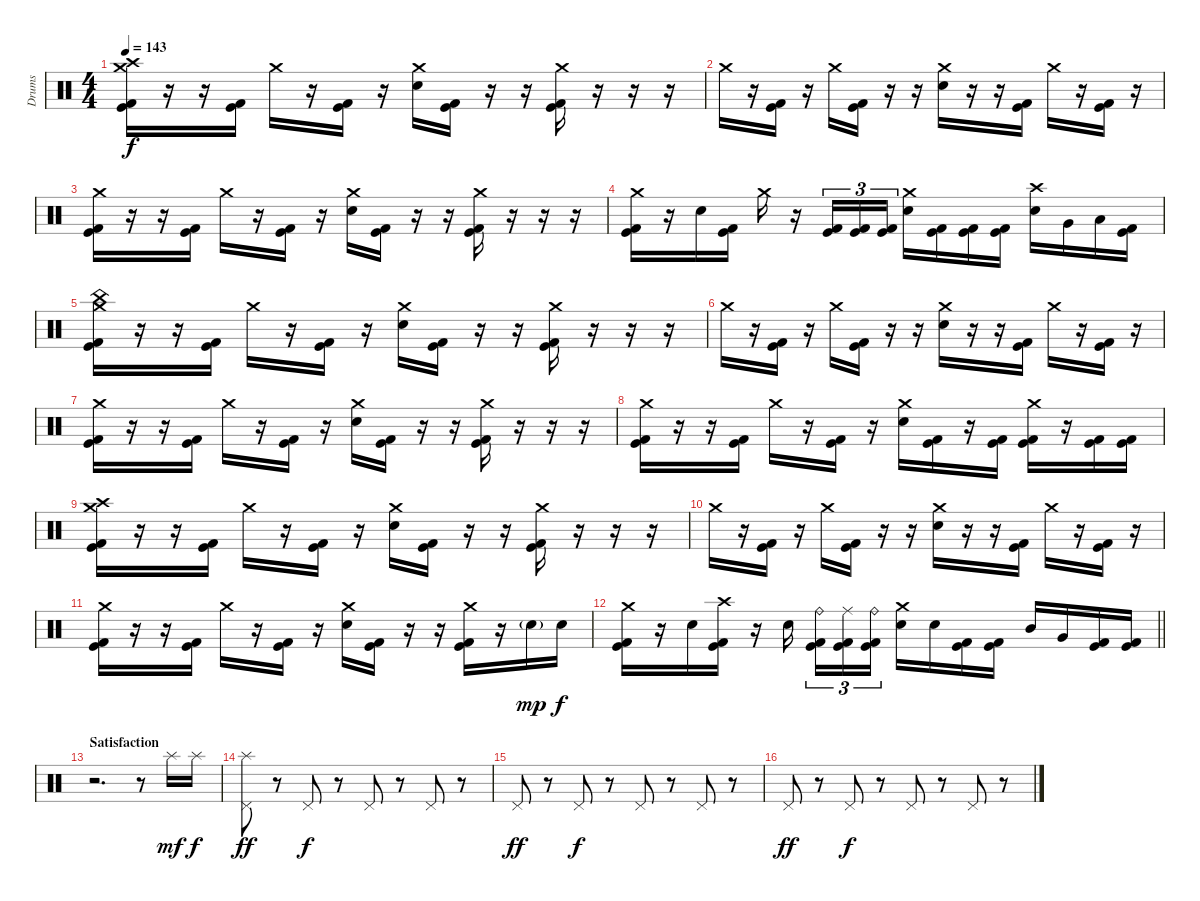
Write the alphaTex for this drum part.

\track ("Drums" "Drums") {instrument percussion}
\staff {score}
\articulation defaults
\ts (4 4)
\tempo 143
\clef neutral
\ks c
("Crash medium (hit)" "Crash high (hit)" "Kick (hit)" "Kick (hit) 2").16{dy f} r.16 r.16 ("Kick (hit)" "Kick (hit) 2").16 "Crash medium (hit)".16 r.16 ("Kick (hit)" "Kick (hit) 2").16 r.16 ("Crash medium (hit)" "Electric Snare (hit)").16 ("Kick (hit)" "Kick (hit) 2").16 r.16 r.16 ("Crash medium (hit)" "Kick (hit)" "Kick (hit) 2").16 r.16 r.16 r.16 |
"Crash medium (hit)".16 r.16 ("Kick (hit)" "Kick (hit) 2").16 r.16 "Crash medium (hit)".16 ("Kick (hit)" "Kick (hit) 2").16 r.16 r.16 ("Crash medium (hit)" "Electric Snare (hit)").16 r.16 r.16 ("Kick (hit)" "Kick (hit) 2").16 "Crash medium (hit)".16 r.16 ("Kick (hit)" "Kick (hit) 2").16 r.16 |
("Crash medium (hit)" "Kick (hit)" "Kick (hit) 2").16 r.16 r.16 ("Kick (hit)" "Kick (hit) 2").16 "Crash medium (hit)".16 r.16 ("Kick (hit)" "Kick (hit) 2").16 r.16 ("Crash medium (hit)" "Electric Snare (hit)").16 ("Kick (hit)" "Kick (hit) 2").16 r.16 r.16 ("Crash medium (hit)" "Kick (hit)" "Kick (hit) 2").16 r.16 r.16 r.16 |
("Crash medium (hit)" "Kick (hit)" "Kick (hit) 2").16 r.16 "Electric Snare (hit)".16 ("Kick (hit)" "Kick (hit) 2").16 "Crash medium (hit)".16 r.16 ("Kick (hit)" "Kick (hit) 2").16{tu (3 2)} ("Kick (hit)" "Kick (hit) 2").16{tu (3 2)} ("Kick (hit)" "Kick (hit) 2").16{tu (3 2)} ("Crash medium (hit)" "Electric Snare (hit)").16 ("Kick (hit)" "Kick (hit) 2").16 ("Kick (hit)" "Kick (hit) 2").16 ("Kick (hit)" "Kick (hit) 2").16 ("Crash high (hit)" "Electric Snare (hit)").16 "Very Low Tom (hit)".16 "Low Floor Tom (hit)".16 ("Kick (hit)" "Kick (hit) 2").16 |
("Crash medium (hit)" "China (hit)" "Kick (hit)" "Kick (hit) 2").16 r.16 r.16 ("Kick (hit)" "Kick (hit) 2").16 "Crash medium (hit)".16 r.16 ("Kick (hit)" "Kick (hit) 2").16 r.16 ("Crash medium (hit)" "Electric Snare (hit)").16 ("Kick (hit)" "Kick (hit) 2").16 r.16 r.16 ("Crash medium (hit)" "Kick (hit)" "Kick (hit) 2").16 r.16 r.16 r.16 |
"Crash medium (hit)".16 r.16 ("Kick (hit)" "Kick (hit) 2").16 r.16 "Crash medium (hit)".16 ("Kick (hit)" "Kick (hit) 2").16 r.16 r.16 ("Crash medium (hit)" "Electric Snare (hit)").16 r.16 r.16 ("Kick (hit)" "Kick (hit) 2").16 "Crash medium (hit)".16 r.16 ("Kick (hit)" "Kick (hit) 2").16 r.16 |
("Crash medium (hit)" "Kick (hit)" "Kick (hit) 2").16 r.16 r.16 ("Kick (hit)" "Kick (hit) 2").16 "Crash medium (hit)".16 r.16 ("Kick (hit)" "Kick (hit) 2").16 r.16 ("Crash medium (hit)" "Electric Snare (hit)").16 ("Kick (hit)" "Kick (hit) 2").16 r.16 r.16 ("Crash medium (hit)" "Kick (hit)" "Kick (hit) 2").16 r.16 r.16 r.16 |
("Crash medium (hit)" "Kick (hit)" "Kick (hit) 2").16 r.16 r.16 ("Kick (hit)" "Kick (hit) 2").16 "Crash medium (hit)".16 r.16 ("Kick (hit)" "Kick (hit) 2").16 r.16 ("Crash medium (hit)" "Electric Snare (hit)").16 ("Kick (hit)" "Kick (hit) 2").16 r.16 ("Kick (hit)" "Kick (hit) 2").16 ("Crash medium (hit)" "Kick (hit)" "Kick (hit) 2").16 r.16 ("Kick (hit)" "Kick (hit) 2").16 ("Kick (hit)" "Kick (hit) 2").16 |
("Crash medium (hit)" "Crash high (hit)" "Kick (hit)" "Kick (hit) 2").16 r.16 r.16 ("Kick (hit)" "Kick (hit) 2").16 "Crash medium (hit)".16 r.16 ("Kick (hit)" "Kick (hit) 2").16 r.16 ("Crash medium (hit)" "Electric Snare (hit)").16 ("Kick (hit)" "Kick (hit) 2").16 r.16 r.16 ("Crash medium (hit)" "Kick (hit)" "Kick (hit) 2").16 r.16 r.16 r.16 |
"Crash medium (hit)".16 r.16 ("Kick (hit)" "Kick (hit) 2").16 r.16 "Crash medium (hit)".16 ("Kick (hit)" "Kick (hit) 2").16 r.16 r.16 ("Crash medium (hit)" "Electric Snare (hit)").16 r.16 r.16 ("Kick (hit)" "Kick (hit) 2").16 "Crash medium (hit)".16 r.16 ("Kick (hit)" "Kick (hit) 2").16 r.16 |
("Crash medium (hit)" "Kick (hit)" "Kick (hit) 2").16 r.16 r.16 ("Kick (hit)" "Kick (hit) 2").16 "Crash medium (hit)".16 r.16 ("Kick (hit)" "Kick (hit) 2").16 r.16 ("Crash medium (hit)" "Electric Snare (hit)").16 ("Kick (hit)" "Kick (hit) 2").16 r.16 r.16 ("Crash medium (hit)" "Kick (hit)" "Kick (hit) 2").16 r.16 "Electric Snare (hit)"{g}.16{dy mp} "Electric Snare (hit)".16{dy f} |
\barLineRight lightlight
("Crash medium (hit)" "Kick (hit)" "Kick (hit) 2").16 r.16 "Electric Snare (hit)".16 ("Crash high (hit)" "Kick (hit)" "Kick (hit) 2").16 r.16 "Electric Snare (hit)".16{beam splitsecondary} ("Ride (bell)" "Kick (hit)" "Kick (hit) 2").16{tu (3 2)} ("Ride (middle)" "Kick (hit)" "Kick (hit) 2").16{tu (3 2)} ("Ride (bell)" "Kick (hit)" "Kick (hit) 2").16{tu (3 2)} ("Crash medium (hit)" "Electric Snare (hit)").16 "Electric Snare (hit)".16 ("Kick (hit)" "Kick (hit) 2").16 ("Kick (hit)" "Kick (hit) 2").16 "Mid Tom (hit)".16 "Very Low Tom (hit)".16 ("Kick (hit)" "Kick (hit) 2").16 ("Kick (hit)" "Kick (hit) 2").16 |
\section ("" "Satisfaction")
r.2{d} r.8 "Splash (hit)".16{dy mf} "Splash (hit)".16{dy f} |
("Splash (hit)" "Pedal Hi-Hat (hit)").8{dy ff} r.8 "Pedal Hi-Hat (hit)".8{dy f} r.8 "Pedal Hi-Hat (hit)".8 r.8 "Pedal Hi-Hat (hit)".8 r.8 |
"Pedal Hi-Hat (hit)".8{dy ff} r.8 "Pedal Hi-Hat (hit)".8{dy f} r.8 "Pedal Hi-Hat (hit)".8 r.8 "Pedal Hi-Hat (hit)".8 r.8 |
"Pedal Hi-Hat (hit)".8{dy ff} r.8 "Pedal Hi-Hat (hit)".8{dy f} r.8 "Pedal Hi-Hat (hit)".8 r.8 "Pedal Hi-Hat (hit)".8 r.8
